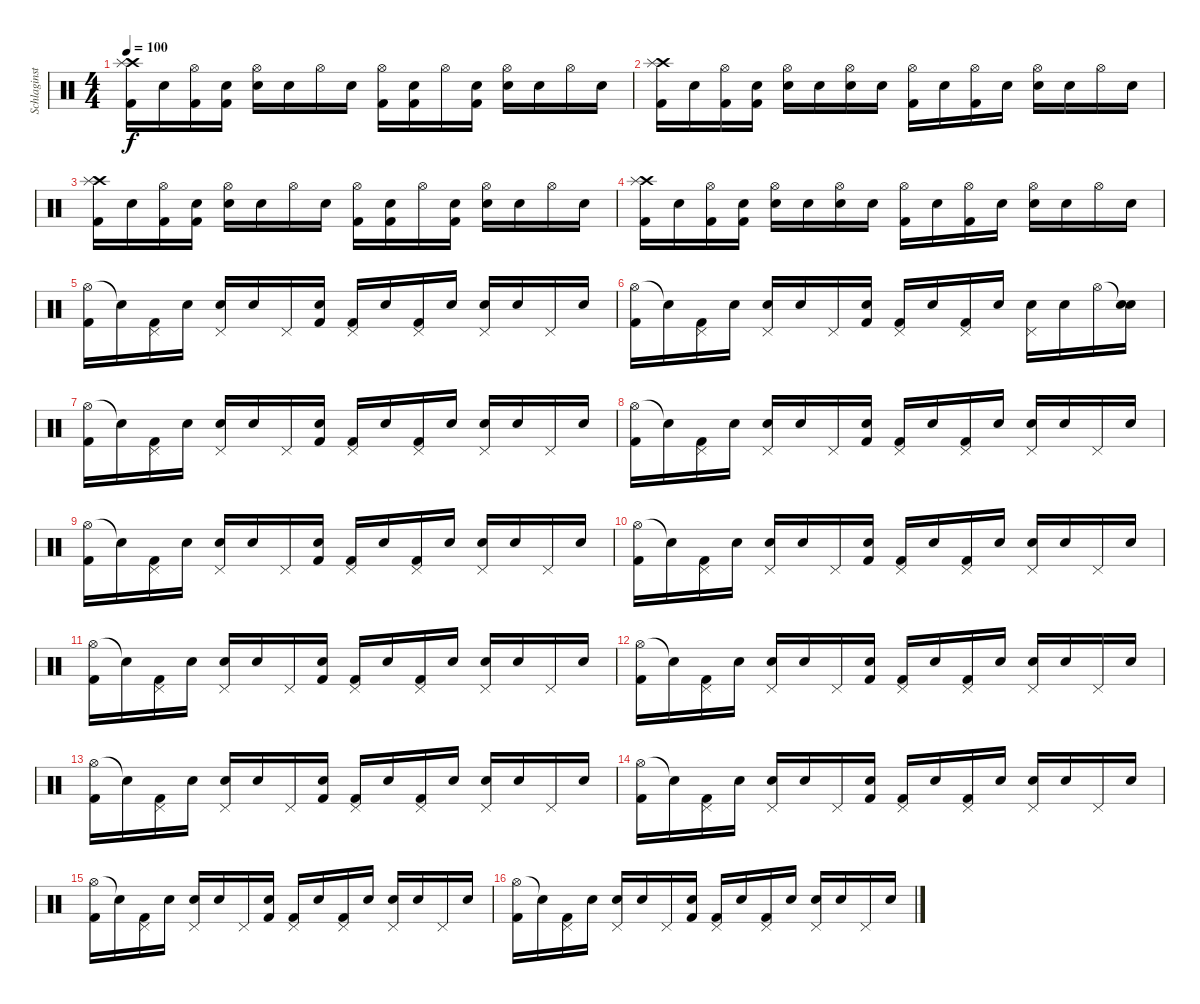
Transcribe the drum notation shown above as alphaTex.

\track ("Schlaginstrumente - Auswahl" "Schlaginst") {instrument percussion}
\staff {score}
\articulation defaults
\ts (4 4)
\tempo 100
\clef neutral
\ks c
("Crash high (hit)" "Splash (hit)" "Kick (hit) 2").16{dy f} "Snare (hit)"{x}.16 ("Hi-Hat (open)" "Kick (hit) 2").16 ("Snare (hit)"{x} "Kick (hit) 2").16 ("Hi-Hat (open)" "Electric Snare (hit)").16 "Snare (hit)"{x}.16 "Hi-Hat (open)".16 "Snare (hit)"{x}.16 ("Hi-Hat (open)" "Kick (hit) 2").16 ("Snare (hit)"{x} "Kick (hit) 2").16 "Hi-Hat (open)".16 ("Snare (hit)"{x} "Kick (hit) 2").16 ("Hi-Hat (open)" "Electric Snare (hit)").16 "Snare (hit)"{x}.16 "Hi-Hat (open)".16 "Snare (hit)"{x}.16 |
("Crash high (hit)" "Splash (hit)" "Kick (hit) 2").16 "Snare (hit)"{x}.16 ("Hi-Hat (open)" "Kick (hit) 2").16 ("Snare (hit)"{x} "Kick (hit) 2").16 ("Hi-Hat (open)" "Electric Snare (hit)").16 "Snare (hit)"{x}.16 ("Hi-Hat (open)" "Electric Snare (hit)").16 "Snare (hit)"{x}.16 ("Hi-Hat (open)" "Kick (hit) 2").16 "Snare (hit)"{x}.16 ("Hi-Hat (open)" "Kick (hit) 2").16 "Snare (hit)"{x}.16 ("Hi-Hat (open)" "Electric Snare (hit)").16 "Snare (hit)"{x}.16 "Hi-Hat (open)".16 "Snare (hit)"{x}.16 |
("Crash high (hit)" "Splash (hit)" "Kick (hit) 2").16 "Snare (hit)"{x}.16 ("Hi-Hat (open)" "Kick (hit) 2").16 ("Snare (hit)"{x} "Kick (hit) 2").16 ("Hi-Hat (open)" "Electric Snare (hit)").16 "Snare (hit)"{x}.16 "Hi-Hat (open)".16 "Snare (hit)"{x}.16 ("Hi-Hat (open)" "Kick (hit) 2").16 ("Snare (hit)"{x} "Kick (hit) 2").16 "Hi-Hat (open)".16 ("Snare (hit)"{x} "Kick (hit) 2").16 ("Hi-Hat (open)" "Electric Snare (hit)").16 "Snare (hit)"{x}.16 "Hi-Hat (open)".16 "Snare (hit)"{x}.16 |
("Crash high (hit)" "Splash (hit)" "Kick (hit) 2").16 "Snare (hit)"{x}.16 ("Hi-Hat (open)" "Kick (hit) 2").16 ("Snare (hit)"{x} "Kick (hit) 2").16 ("Hi-Hat (open)" "Electric Snare (hit)").16 "Snare (hit)"{x}.16 ("Hi-Hat (open)" "Electric Snare (hit)").16 "Snare (hit)"{x}.16 ("Hi-Hat (open)" "Kick (hit) 2").16 "Snare (hit)"{x}.16 ("Hi-Hat (open)" "Kick (hit) 2").16 "Snare (hit)"{x}.16 ("Hi-Hat (open)" "Electric Snare (hit)").16 "Snare (hit)"{x}.16 "Hi-Hat (open)".16 "Snare (hit)"{x}.16 |
("Hi-Hat (open)" "Kick (hit) 2").16 "Snare (hit)"{t}.16 ("Pedal Hi-Hat (hit)" "Kick (hit) 2").16 "Snare (hit)"{x}.16 ("Pedal Hi-Hat (hit)" "Electric Snare (hit)").16 "Snare (hit)"{x}.16 "Pedal Hi-Hat (hit)".16 ("Snare (hit)"{x} "Kick (hit) 2").16 ("Pedal Hi-Hat (hit)" "Kick (hit) 2").16 "Snare (hit)"{x}.16 ("Pedal Hi-Hat (hit)" "Kick (hit) 2").16 "Snare (hit)"{x}.16 ("Pedal Hi-Hat (hit)" "Electric Snare (hit)").16 "Snare (hit)"{x}.16 "Pedal Hi-Hat (hit)".16 "Snare (hit)"{x}.16 |
("Hi-Hat (open)" "Kick (hit) 2").16 "Snare (hit)"{t}.16 ("Pedal Hi-Hat (hit)" "Kick (hit) 2").16 "Snare (hit)"{x}.16 ("Pedal Hi-Hat (hit)" "Electric Snare (hit)").16 "Snare (hit)"{x}.16 "Pedal Hi-Hat (hit)".16 ("Snare (hit)"{x} "Kick (hit) 2").16 ("Pedal Hi-Hat (hit)" "Kick (hit) 2").16 "Snare (hit)"{x}.16 ("Pedal Hi-Hat (hit)" "Kick (hit) 2").16 "Snare (hit)"{x}.16 ("Pedal Hi-Hat (hit)" "Electric Snare (hit)").16 "Snare (hit)"{x}.16 "Hi-Hat (open)".16 ("Snare (hit)"{t} "Electric Snare (hit)").16 |
("Hi-Hat (open)" "Kick (hit) 2").16 "Snare (hit)"{t}.16 ("Pedal Hi-Hat (hit)" "Kick (hit) 2").16 "Snare (hit)"{x}.16 ("Pedal Hi-Hat (hit)" "Electric Snare (hit)").16 "Snare (hit)"{x}.16 "Pedal Hi-Hat (hit)".16 ("Snare (hit)"{x} "Kick (hit) 2").16 ("Pedal Hi-Hat (hit)" "Kick (hit) 2").16 "Snare (hit)"{x}.16 ("Pedal Hi-Hat (hit)" "Kick (hit) 2").16 "Snare (hit)"{x}.16 ("Pedal Hi-Hat (hit)" "Electric Snare (hit)").16 "Snare (hit)"{x}.16 "Pedal Hi-Hat (hit)".16 "Snare (hit)"{x}.16 |
("Hi-Hat (open)" "Kick (hit) 2").16 "Snare (hit)"{t}.16 ("Pedal Hi-Hat (hit)" "Kick (hit) 2").16 "Snare (hit)"{x}.16 ("Pedal Hi-Hat (hit)" "Electric Snare (hit)").16 "Snare (hit)"{x}.16 "Pedal Hi-Hat (hit)".16 ("Snare (hit)"{x} "Kick (hit) 2").16 ("Pedal Hi-Hat (hit)" "Kick (hit) 2").16 "Snare (hit)"{x}.16 ("Pedal Hi-Hat (hit)" "Kick (hit) 2").16 "Snare (hit)"{x}.16 ("Pedal Hi-Hat (hit)" "Electric Snare (hit)").16 "Snare (hit)"{x}.16 "Pedal Hi-Hat (hit)".16 "Snare (hit)"{x}.16 |
("Hi-Hat (open)" "Kick (hit) 2").16 "Snare (hit)"{t}.16 ("Pedal Hi-Hat (hit)" "Kick (hit) 2").16 "Snare (hit)"{x}.16 ("Pedal Hi-Hat (hit)" "Electric Snare (hit)").16 "Snare (hit)"{x}.16 "Pedal Hi-Hat (hit)".16 ("Snare (hit)"{x} "Kick (hit) 2").16 ("Pedal Hi-Hat (hit)" "Kick (hit) 2").16 "Snare (hit)"{x}.16 ("Pedal Hi-Hat (hit)" "Kick (hit) 2").16 "Snare (hit)"{x}.16 ("Pedal Hi-Hat (hit)" "Electric Snare (hit)").16 "Snare (hit)"{x}.16 "Pedal Hi-Hat (hit)".16 "Snare (hit)"{x}.16 |
("Hi-Hat (open)" "Kick (hit) 2").16 "Snare (hit)"{t}.16 ("Pedal Hi-Hat (hit)" "Kick (hit) 2").16 "Snare (hit)"{x}.16 ("Pedal Hi-Hat (hit)" "Electric Snare (hit)").16 "Snare (hit)"{x}.16 "Pedal Hi-Hat (hit)".16 ("Snare (hit)"{x} "Kick (hit) 2").16 ("Pedal Hi-Hat (hit)" "Kick (hit) 2").16 "Snare (hit)"{x}.16 ("Pedal Hi-Hat (hit)" "Kick (hit) 2").16 "Snare (hit)"{x}.16 ("Pedal Hi-Hat (hit)" "Electric Snare (hit)").16 "Snare (hit)"{x}.16 "Pedal Hi-Hat (hit)".16 "Snare (hit)"{x}.16 |
("Hi-Hat (open)" "Kick (hit) 2").16 "Snare (hit)"{t}.16 ("Pedal Hi-Hat (hit)" "Kick (hit) 2").16 "Snare (hit)"{x}.16 ("Pedal Hi-Hat (hit)" "Electric Snare (hit)").16 "Snare (hit)"{x}.16 "Pedal Hi-Hat (hit)".16 ("Snare (hit)"{x} "Kick (hit) 2").16 ("Pedal Hi-Hat (hit)" "Kick (hit) 2").16 "Snare (hit)"{x}.16 ("Pedal Hi-Hat (hit)" "Kick (hit) 2").16 "Snare (hit)"{x}.16 ("Pedal Hi-Hat (hit)" "Electric Snare (hit)").16 "Snare (hit)"{x}.16 "Pedal Hi-Hat (hit)".16 "Snare (hit)"{x}.16 |
("Hi-Hat (open)" "Kick (hit) 2").16 "Snare (hit)"{t}.16 ("Pedal Hi-Hat (hit)" "Kick (hit) 2").16 "Snare (hit)"{x}.16 ("Pedal Hi-Hat (hit)" "Electric Snare (hit)").16 "Snare (hit)"{x}.16 "Pedal Hi-Hat (hit)".16 ("Snare (hit)"{x} "Kick (hit) 2").16 ("Pedal Hi-Hat (hit)" "Kick (hit) 2").16 "Snare (hit)"{x}.16 ("Pedal Hi-Hat (hit)" "Kick (hit) 2").16 "Snare (hit)"{x}.16 ("Pedal Hi-Hat (hit)" "Electric Snare (hit)").16 "Snare (hit)"{x}.16 "Pedal Hi-Hat (hit)".16 "Snare (hit)"{x}.16 |
("Hi-Hat (open)" "Kick (hit) 2").16 "Snare (hit)"{t}.16 ("Pedal Hi-Hat (hit)" "Kick (hit) 2").16 "Snare (hit)"{x}.16 ("Pedal Hi-Hat (hit)" "Electric Snare (hit)").16 "Snare (hit)"{x}.16 "Pedal Hi-Hat (hit)".16 ("Snare (hit)"{x} "Kick (hit) 2").16 ("Pedal Hi-Hat (hit)" "Kick (hit) 2").16 "Snare (hit)"{x}.16 ("Pedal Hi-Hat (hit)" "Kick (hit) 2").16 "Snare (hit)"{x}.16 ("Pedal Hi-Hat (hit)" "Electric Snare (hit)").16 "Snare (hit)"{x}.16 "Pedal Hi-Hat (hit)".16 "Snare (hit)"{x}.16 |
("Hi-Hat (open)" "Kick (hit) 2").16 "Snare (hit)"{t}.16 ("Pedal Hi-Hat (hit)" "Kick (hit) 2").16 "Snare (hit)"{x}.16 ("Pedal Hi-Hat (hit)" "Electric Snare (hit)").16 "Snare (hit)"{x}.16 "Pedal Hi-Hat (hit)".16 ("Snare (hit)"{x} "Kick (hit) 2").16 ("Pedal Hi-Hat (hit)" "Kick (hit) 2").16 "Snare (hit)"{x}.16 ("Pedal Hi-Hat (hit)" "Kick (hit) 2").16 "Snare (hit)"{x}.16 ("Pedal Hi-Hat (hit)" "Electric Snare (hit)").16 "Snare (hit)"{x}.16 "Pedal Hi-Hat (hit)".16 "Snare (hit)"{x}.16 |
("Hi-Hat (open)" "Kick (hit) 2").16 "Snare (hit)"{t}.16 ("Pedal Hi-Hat (hit)" "Kick (hit) 2").16 "Snare (hit)"{x}.16 ("Pedal Hi-Hat (hit)" "Electric Snare (hit)").16 "Snare (hit)"{x}.16 "Pedal Hi-Hat (hit)".16 ("Snare (hit)"{x} "Kick (hit) 2").16 ("Pedal Hi-Hat (hit)" "Kick (hit) 2").16 "Snare (hit)"{x}.16 ("Pedal Hi-Hat (hit)" "Kick (hit) 2").16 "Snare (hit)"{x}.16 ("Pedal Hi-Hat (hit)" "Electric Snare (hit)").16 "Snare (hit)"{x}.16 "Pedal Hi-Hat (hit)".16 "Snare (hit)"{x}.16 |
("Hi-Hat (open)" "Kick (hit) 2").16 "Snare (hit)"{t}.16 ("Pedal Hi-Hat (hit)" "Kick (hit) 2").16 "Snare (hit)"{x}.16 ("Pedal Hi-Hat (hit)" "Electric Snare (hit)").16 "Snare (hit)"{x}.16 "Pedal Hi-Hat (hit)".16 ("Snare (hit)"{x} "Kick (hit) 2").16 ("Pedal Hi-Hat (hit)" "Kick (hit) 2").16 "Snare (hit)"{x}.16 ("Pedal Hi-Hat (hit)" "Kick (hit) 2").16 "Snare (hit)"{x}.16 ("Pedal Hi-Hat (hit)" "Electric Snare (hit)").16 "Snare (hit)"{x}.16 "Pedal Hi-Hat (hit)".16 "Snare (hit)"{x}.16
